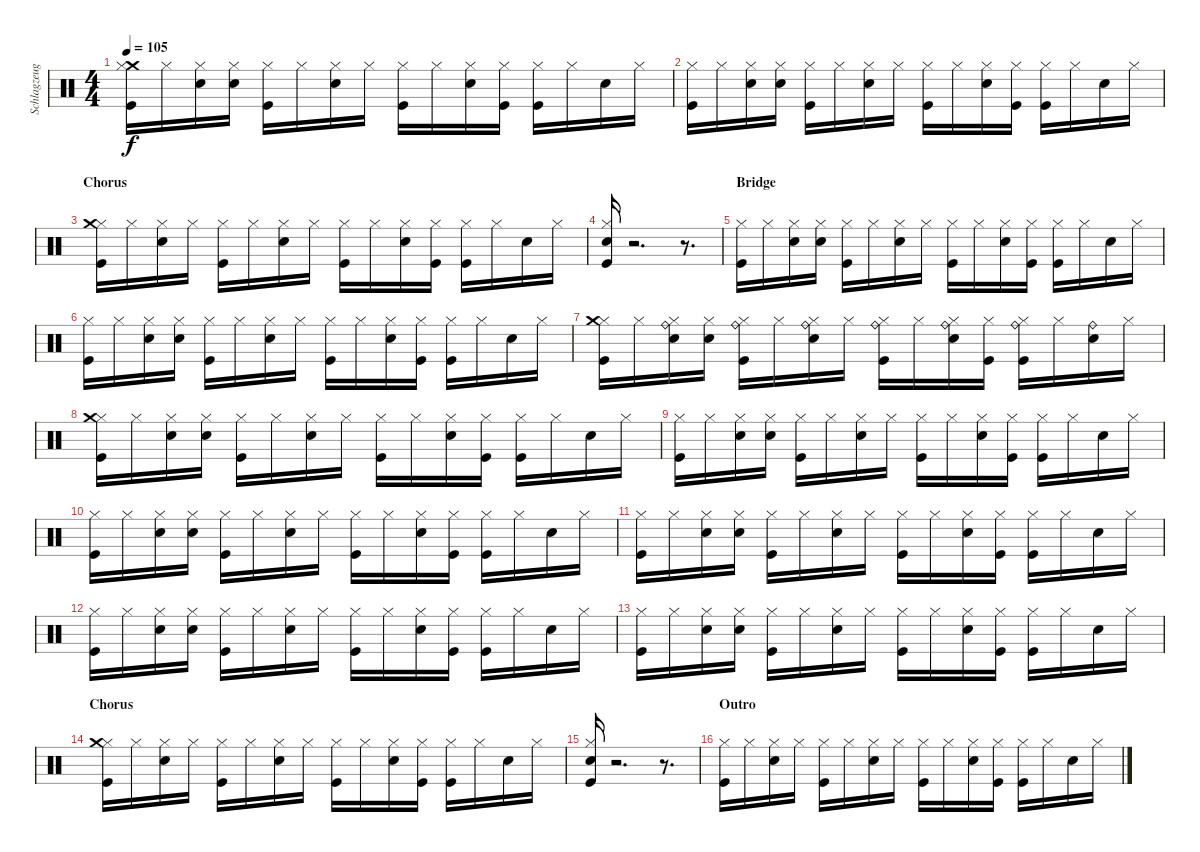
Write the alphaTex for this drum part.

\track ("Schlagzeug - Bela B." "Schlagzeug") {instrument percussion}
\staff {score}
\articulation defaults
\ts (4 4)
\tempo 105
\clef neutral
\ks c
("Crash medium (hit)" "Kick (hit)" "Hi-Hat (closed)").16{dy f} "Hi-Hat (closed)".16 ("Hi-Hat (closed)" "Electric Snare (hit)").16 ("Hi-Hat (closed)" "Electric Snare (hit)").16 ("Hi-Hat (closed)" "Kick (hit)").16 "Hi-Hat (closed)".16 ("Electric Snare (hit)" "Hi-Hat (closed)").16 "Hi-Hat (closed)".16 ("Kick (hit)" "Hi-Hat (closed)").16 "Hi-Hat (closed)".16 ("Electric Snare (hit)" "Hi-Hat (closed)").16 ("Hi-Hat (closed)" "Kick (hit)").16 ("Hi-Hat (closed)" "Kick (hit)").16 "Hi-Hat (closed)".16 "Electric Snare (hit)".16 "Hi-Hat (closed)".16 |
("Kick (hit)" "Hi-Hat (closed)").16 "Hi-Hat (closed)".16 ("Hi-Hat (closed)" "Electric Snare (hit)").16 ("Hi-Hat (closed)" "Electric Snare (hit)").16 ("Hi-Hat (closed)" "Kick (hit)").16 "Hi-Hat (closed)".16 ("Electric Snare (hit)" "Hi-Hat (closed)").16 "Hi-Hat (closed)".16 ("Kick (hit)" "Hi-Hat (closed)").16 "Hi-Hat (closed)".16 ("Electric Snare (hit)" "Hi-Hat (closed)").16 ("Hi-Hat (closed)" "Kick (hit)").16 ("Hi-Hat (closed)" "Kick (hit)").16 "Hi-Hat (closed)".16 "Electric Snare (hit)".16 "Hi-Hat (closed)".16 |
\section ("" "Chorus")
("Kick (hit)" "Hi-Hat (closed)" "Crash medium (hit)").16 "Hi-Hat (closed)".16 ("Hi-Hat (closed)" "Electric Snare (hit)").16 "Hi-Hat (closed)".16 ("Hi-Hat (closed)" "Kick (hit)").16 "Hi-Hat (closed)".16 ("Electric Snare (hit)" "Hi-Hat (closed)").16 "Hi-Hat (closed)".16 ("Kick (hit)" "Hi-Hat (closed)").16 "Hi-Hat (closed)".16 ("Electric Snare (hit)" "Hi-Hat (closed)").16 ("Hi-Hat (closed)" "Kick (hit)").16 ("Kick (hit)" "Hi-Hat (closed)").16 "Hi-Hat (closed)".16 "Electric Snare (hit)".16 "Hi-Hat (closed)".16 |
("Kick (hit)" "Electric Snare (hit)" "Hi-Hat (closed)").16 r.2{d} r.8{d} |
\section ("" "Bridge")
("Kick (hit)" "Hi-Hat (closed)").16 "Hi-Hat (closed)".16 ("Hi-Hat (closed)" "Electric Snare (hit)").16 ("Hi-Hat (closed)" "Electric Snare (hit)").16 ("Hi-Hat (closed)" "Kick (hit)").16 "Hi-Hat (closed)".16 ("Electric Snare (hit)" "Hi-Hat (closed)").16 "Hi-Hat (closed)".16 ("Kick (hit)" "Hi-Hat (closed)").16 "Hi-Hat (closed)".16 ("Electric Snare (hit)" "Hi-Hat (closed)").16 ("Hi-Hat (closed)" "Kick (hit)").16 ("Hi-Hat (closed)" "Kick (hit)").16 "Hi-Hat (closed)".16 "Electric Snare (hit)".16 "Hi-Hat (closed)".16 |
("Kick (hit)" "Hi-Hat (closed)").16 "Hi-Hat (closed)".16 ("Hi-Hat (closed)" "Electric Snare (hit)").16 ("Hi-Hat (closed)" "Electric Snare (hit)").16 ("Hi-Hat (closed)" "Kick (hit)").16 "Hi-Hat (closed)".16 ("Electric Snare (hit)" "Hi-Hat (closed)").16 "Hi-Hat (closed)".16 ("Kick (hit)" "Hi-Hat (closed)").16 "Hi-Hat (closed)".16 ("Electric Snare (hit)" "Hi-Hat (closed)").16 ("Hi-Hat (closed)" "Kick (hit)").16 ("Hi-Hat (closed)" "Kick (hit)").16 "Hi-Hat (closed)".16 "Electric Snare (hit)".16 "Hi-Hat (closed)".16 |
("Kick (hit)" "Hi-Hat (closed)" "Crash medium (hit)").16 "Hi-Hat (closed)".16 ("Hi-Hat (closed)" "Electric Snare (hit)" "Ride (bell)").16 ("Hi-Hat (closed)" "Electric Snare (hit)").16 ("Hi-Hat (closed)" "Kick (hit)" "Ride (bell)").16 "Hi-Hat (closed)".16 ("Electric Snare (hit)" "Hi-Hat (closed)" "Ride (bell)").16 "Hi-Hat (closed)".16 ("Kick (hit)" "Hi-Hat (closed)" "Ride (bell)").16 "Hi-Hat (closed)".16 ("Electric Snare (hit)" "Hi-Hat (closed)" "Ride (bell)").16 ("Hi-Hat (closed)" "Kick (hit)").16 ("Hi-Hat (closed)" "Kick (hit)" "Ride (bell)").16 "Hi-Hat (closed)".16 ("Electric Snare (hit)" "Ride (bell)").16 "Hi-Hat (closed)".16 |
("Kick (hit)" "Hi-Hat (closed)" "Crash medium (hit)").16 "Hi-Hat (closed)".16 ("Hi-Hat (closed)" "Electric Snare (hit)").16 ("Hi-Hat (closed)" "Electric Snare (hit)").16 ("Hi-Hat (closed)" "Kick (hit)").16 "Hi-Hat (closed)".16 ("Electric Snare (hit)" "Hi-Hat (closed)").16 "Hi-Hat (closed)".16 ("Kick (hit)" "Hi-Hat (closed)").16 "Hi-Hat (closed)".16 ("Electric Snare (hit)" "Hi-Hat (closed)").16 ("Hi-Hat (closed)" "Kick (hit)").16 ("Hi-Hat (closed)" "Kick (hit)").16 "Hi-Hat (closed)".16 "Electric Snare (hit)".16 "Hi-Hat (closed)".16 |
("Kick (hit)" "Hi-Hat (closed)").16 "Hi-Hat (closed)".16 ("Hi-Hat (closed)" "Electric Snare (hit)").16 ("Hi-Hat (closed)" "Electric Snare (hit)").16 ("Hi-Hat (closed)" "Kick (hit)").16 "Hi-Hat (closed)".16 ("Electric Snare (hit)" "Hi-Hat (closed)").16 "Hi-Hat (closed)".16 ("Kick (hit)" "Hi-Hat (closed)").16 "Hi-Hat (closed)".16 ("Electric Snare (hit)" "Hi-Hat (closed)").16 ("Hi-Hat (closed)" "Kick (hit)").16 ("Hi-Hat (closed)" "Kick (hit)").16 "Hi-Hat (closed)".16 "Electric Snare (hit)".16 "Hi-Hat (closed)".16 |
("Kick (hit)" "Hi-Hat (closed)").16 "Hi-Hat (closed)".16 ("Hi-Hat (closed)" "Electric Snare (hit)").16 ("Hi-Hat (closed)" "Electric Snare (hit)").16 ("Hi-Hat (closed)" "Kick (hit)").16 "Hi-Hat (closed)".16 ("Electric Snare (hit)" "Hi-Hat (closed)").16 "Hi-Hat (closed)".16 ("Kick (hit)" "Hi-Hat (closed)").16 "Hi-Hat (closed)".16 ("Electric Snare (hit)" "Hi-Hat (closed)").16 ("Hi-Hat (closed)" "Kick (hit)").16 ("Hi-Hat (closed)" "Kick (hit)").16 "Hi-Hat (closed)".16 "Electric Snare (hit)".16 "Hi-Hat (closed)".16 |
("Kick (hit)" "Hi-Hat (closed)").16 "Hi-Hat (closed)".16 ("Hi-Hat (closed)" "Electric Snare (hit)").16 ("Hi-Hat (closed)" "Electric Snare (hit)").16 ("Hi-Hat (closed)" "Kick (hit)").16 "Hi-Hat (closed)".16 ("Electric Snare (hit)" "Hi-Hat (closed)").16 "Hi-Hat (closed)".16 ("Kick (hit)" "Hi-Hat (closed)").16 "Hi-Hat (closed)".16 ("Electric Snare (hit)" "Hi-Hat (closed)").16 ("Hi-Hat (closed)" "Kick (hit)").16 ("Hi-Hat (closed)" "Kick (hit)").16 "Hi-Hat (closed)".16 "Electric Snare (hit)".16 "Hi-Hat (closed)".16 |
("Kick (hit)" "Hi-Hat (closed)").16 "Hi-Hat (closed)".16 ("Hi-Hat (closed)" "Electric Snare (hit)").16 ("Hi-Hat (closed)" "Electric Snare (hit)").16 ("Hi-Hat (closed)" "Kick (hit)").16 "Hi-Hat (closed)".16 ("Electric Snare (hit)" "Hi-Hat (closed)").16 "Hi-Hat (closed)".16 ("Kick (hit)" "Hi-Hat (closed)").16 "Hi-Hat (closed)".16 ("Electric Snare (hit)" "Hi-Hat (closed)").16 ("Hi-Hat (closed)" "Kick (hit)").16 ("Hi-Hat (closed)" "Kick (hit)").16 "Hi-Hat (closed)".16 "Electric Snare (hit)".16 "Hi-Hat (closed)".16 |
("Kick (hit)" "Hi-Hat (closed)").16 "Hi-Hat (closed)".16 ("Hi-Hat (closed)" "Electric Snare (hit)").16 ("Hi-Hat (closed)" "Electric Snare (hit)").16 ("Hi-Hat (closed)" "Kick (hit)").16 "Hi-Hat (closed)".16 ("Electric Snare (hit)" "Hi-Hat (closed)").16 "Hi-Hat (closed)".16 ("Kick (hit)" "Hi-Hat (closed)").16 "Hi-Hat (closed)".16 ("Electric Snare (hit)" "Hi-Hat (closed)").16 ("Hi-Hat (closed)" "Kick (hit)").16 ("Hi-Hat (closed)" "Kick (hit)").16 "Hi-Hat (closed)".16 "Electric Snare (hit)".16 "Hi-Hat (closed)".16 |
\section ("" "Chorus")
("Kick (hit)" "Hi-Hat (closed)" "Crash medium (hit)").16 "Hi-Hat (closed)".16 ("Hi-Hat (closed)" "Electric Snare (hit)").16 "Hi-Hat (closed)".16 ("Hi-Hat (closed)" "Kick (hit)").16 "Hi-Hat (closed)".16 ("Electric Snare (hit)" "Hi-Hat (closed)").16 "Hi-Hat (closed)".16 ("Kick (hit)" "Hi-Hat (closed)").16 "Hi-Hat (closed)".16 ("Electric Snare (hit)" "Hi-Hat (closed)").16 ("Hi-Hat (closed)" "Kick (hit)").16 ("Kick (hit)" "Hi-Hat (closed)").16 "Hi-Hat (closed)".16 "Electric Snare (hit)".16 "Hi-Hat (closed)".16 |
("Kick (hit)" "Electric Snare (hit)" "Hi-Hat (closed)").16 r.2{d} r.8{d} |
\section ("" "Outro")
("Kick (hit)" "Hi-Hat (closed)").16 "Hi-Hat (closed)".16 ("Hi-Hat (closed)" "Electric Snare (hit)").16 "Hi-Hat (closed)".16 ("Hi-Hat (closed)" "Kick (hit)").16 "Hi-Hat (closed)".16 ("Electric Snare (hit)" "Hi-Hat (closed)").16 "Hi-Hat (closed)".16 ("Kick (hit)" "Hi-Hat (closed)").16 "Hi-Hat (closed)".16 ("Electric Snare (hit)" "Hi-Hat (closed)").16 ("Hi-Hat (closed)" "Kick (hit)").16 ("Kick (hit)" "Hi-Hat (closed)").16 "Hi-Hat (closed)".16 "Electric Snare (hit)".16 "Hi-Hat (closed)".16
